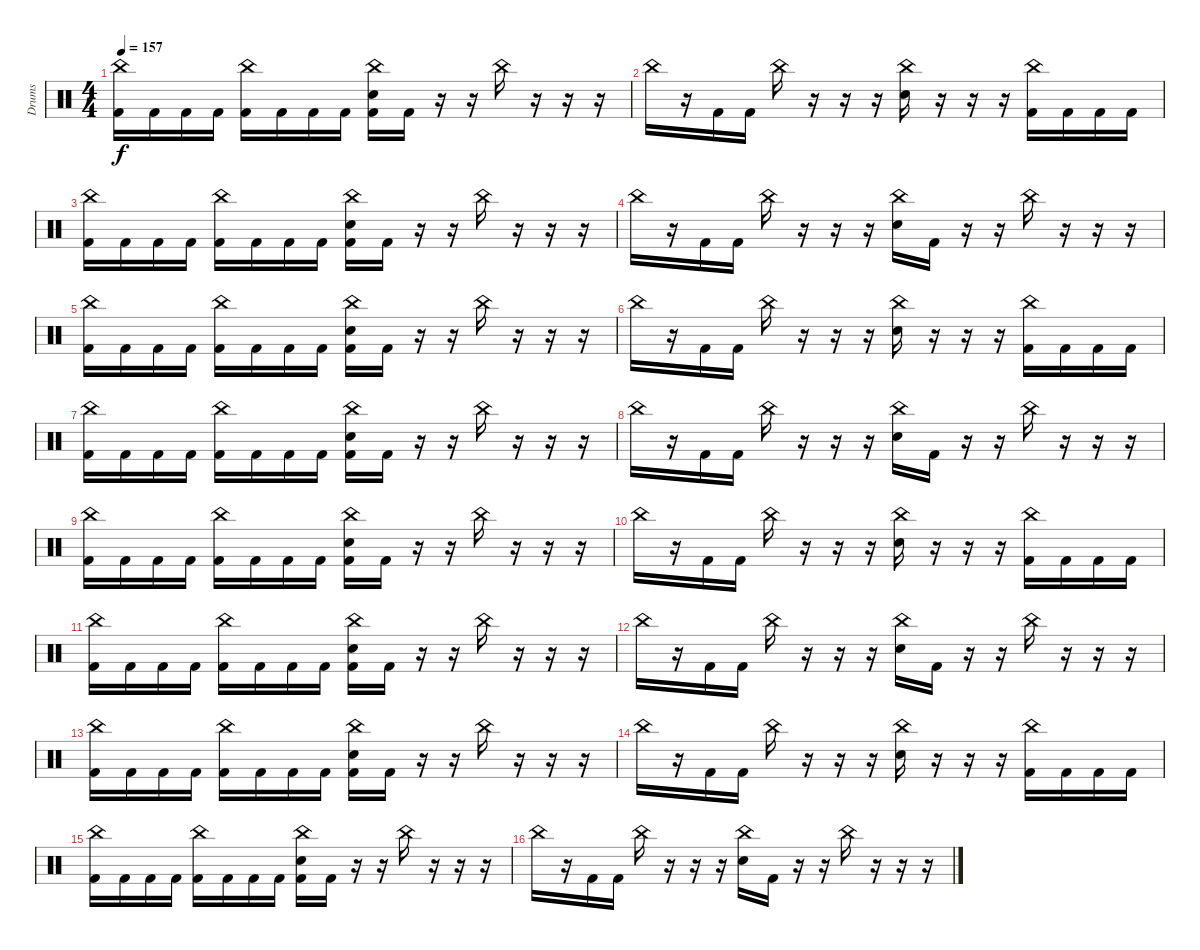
\track ("Drums" "Drums") {instrument percussion}
\staff {score}
\articulation defaults
\ts (4 4)
\tempo 157
\clef neutral
\ks c
("China (hit)" "Kick (hit) 2").16{dy f} "Kick (hit) 2".16 "Kick (hit) 2".16 "Kick (hit) 2".16 ("China (hit)" "Kick (hit) 2").16 "Kick (hit) 2".16 "Kick (hit) 2".16 "Kick (hit) 2".16 ("China (hit)" "Electric Snare (hit)" "Kick (hit) 2").16 "Kick (hit) 2".16 r.16 r.16 "China (hit)".16 r.16 r.16 r.16 |
"China (hit)".16 r.16 "Kick (hit) 2".16 "Kick (hit) 2".16 "China (hit)".16 r.16 r.16 r.16 ("China (hit)" "Electric Snare (hit)").16 r.16 r.16 r.16 ("China (hit)" "Kick (hit) 2").16 "Kick (hit) 2".16 "Kick (hit) 2".16 "Kick (hit) 2".16 |
("China (hit)" "Kick (hit) 2").16 "Kick (hit) 2".16 "Kick (hit) 2".16 "Kick (hit) 2".16 ("China (hit)" "Kick (hit) 2").16 "Kick (hit) 2".16 "Kick (hit) 2".16 "Kick (hit) 2".16 ("China (hit)" "Electric Snare (hit)" "Kick (hit) 2").16 "Kick (hit) 2".16 r.16 r.16 "China (hit)".16 r.16 r.16 r.16 |
"China (hit)".16 r.16 "Kick (hit) 2".16 "Kick (hit) 2".16 "China (hit)".16 r.16 r.16 r.16 ("China (hit)" "Electric Snare (hit)").16 "Kick (hit) 2".16 r.16 r.16 "China (hit)".16 r.16 r.16 r.16 |
("China (hit)" "Kick (hit) 2").16 "Kick (hit) 2".16 "Kick (hit) 2".16 "Kick (hit) 2".16 ("China (hit)" "Kick (hit) 2").16 "Kick (hit) 2".16 "Kick (hit) 2".16 "Kick (hit) 2".16 ("China (hit)" "Electric Snare (hit)" "Kick (hit) 2").16 "Kick (hit) 2".16 r.16 r.16 "China (hit)".16 r.16 r.16 r.16 |
"China (hit)".16 r.16 "Kick (hit) 2".16 "Kick (hit) 2".16 "China (hit)".16 r.16 r.16 r.16 ("China (hit)" "Electric Snare (hit)").16 r.16 r.16 r.16 ("China (hit)" "Kick (hit) 2").16 "Kick (hit) 2".16 "Kick (hit) 2".16 "Kick (hit) 2".16 |
("China (hit)" "Kick (hit) 2").16 "Kick (hit) 2".16 "Kick (hit) 2".16 "Kick (hit) 2".16 ("China (hit)" "Kick (hit) 2").16 "Kick (hit) 2".16 "Kick (hit) 2".16 "Kick (hit) 2".16 ("China (hit)" "Electric Snare (hit)" "Kick (hit) 2").16 "Kick (hit) 2".16 r.16 r.16 "China (hit)".16 r.16 r.16 r.16 |
"China (hit)".16 r.16 "Kick (hit) 2".16 "Kick (hit) 2".16 "China (hit)".16 r.16 r.16 r.16 ("China (hit)" "Electric Snare (hit)").16 "Kick (hit) 2".16 r.16 r.16 "China (hit)".16 r.16 r.16 r.16 |
("China (hit)" "Kick (hit) 2").16 "Kick (hit) 2".16 "Kick (hit) 2".16 "Kick (hit) 2".16 ("China (hit)" "Kick (hit) 2").16 "Kick (hit) 2".16 "Kick (hit) 2".16 "Kick (hit) 2".16 ("China (hit)" "Electric Snare (hit)" "Kick (hit) 2").16 "Kick (hit) 2".16 r.16 r.16 "China (hit)".16 r.16 r.16 r.16 |
"China (hit)".16 r.16 "Kick (hit) 2".16 "Kick (hit) 2".16 "China (hit)".16 r.16 r.16 r.16 ("China (hit)" "Electric Snare (hit)").16 r.16 r.16 r.16 ("China (hit)" "Kick (hit) 2").16 "Kick (hit) 2".16 "Kick (hit) 2".16 "Kick (hit) 2".16 |
("China (hit)" "Kick (hit) 2").16 "Kick (hit) 2".16 "Kick (hit) 2".16 "Kick (hit) 2".16 ("China (hit)" "Kick (hit) 2").16 "Kick (hit) 2".16 "Kick (hit) 2".16 "Kick (hit) 2".16 ("China (hit)" "Electric Snare (hit)" "Kick (hit) 2").16 "Kick (hit) 2".16 r.16 r.16 "China (hit)".16 r.16 r.16 r.16 |
"China (hit)".16 r.16 "Kick (hit) 2".16 "Kick (hit) 2".16 "China (hit)".16 r.16 r.16 r.16 ("China (hit)" "Electric Snare (hit)").16 "Kick (hit) 2".16 r.16 r.16 "China (hit)".16 r.16 r.16 r.16 |
("China (hit)" "Kick (hit) 2").16 "Kick (hit) 2".16 "Kick (hit) 2".16 "Kick (hit) 2".16 ("China (hit)" "Kick (hit) 2").16 "Kick (hit) 2".16 "Kick (hit) 2".16 "Kick (hit) 2".16 ("China (hit)" "Electric Snare (hit)" "Kick (hit) 2").16 "Kick (hit) 2".16 r.16 r.16 "China (hit)".16 r.16 r.16 r.16 |
"China (hit)".16 r.16 "Kick (hit) 2".16 "Kick (hit) 2".16 "China (hit)".16 r.16 r.16 r.16 ("China (hit)" "Electric Snare (hit)").16 r.16 r.16 r.16 ("China (hit)" "Kick (hit) 2").16 "Kick (hit) 2".16 "Kick (hit) 2".16 "Kick (hit) 2".16 |
("China (hit)" "Kick (hit) 2").16 "Kick (hit) 2".16 "Kick (hit) 2".16 "Kick (hit) 2".16 ("China (hit)" "Kick (hit) 2").16 "Kick (hit) 2".16 "Kick (hit) 2".16 "Kick (hit) 2".16 ("China (hit)" "Electric Snare (hit)" "Kick (hit) 2").16 "Kick (hit) 2".16 r.16 r.16 "China (hit)".16 r.16 r.16 r.16 |
"China (hit)".16 r.16 "Kick (hit) 2".16 "Kick (hit) 2".16 "China (hit)".16 r.16 r.16 r.16 ("China (hit)" "Electric Snare (hit)").16 "Kick (hit) 2".16 r.16 r.16 "China (hit)".16 r.16 r.16 r.16
